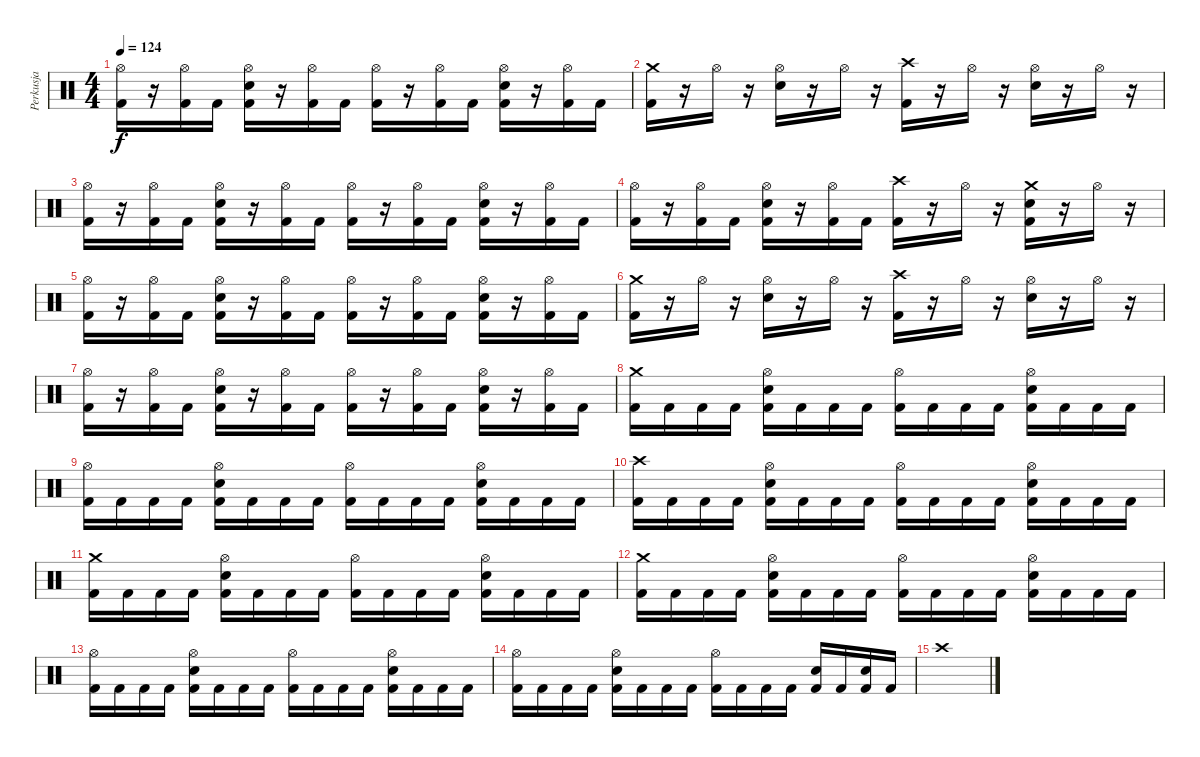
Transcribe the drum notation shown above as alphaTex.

\track ("Perkusja" "Perkusja") {instrument percussion}
\staff {score}
\articulation defaults
\ts (4 4)
\tempo 124
\clef neutral
\ks c
("Hi-Hat (open)" "Kick (hit) 2").16{dy f} r.16 ("Hi-Hat (open)" "Kick (hit) 2").16 "Kick (hit) 2".16 ("Snare (hit) 2" "Hi-Hat (open)" "Kick (hit) 2").16 r.16 ("Hi-Hat (open)" "Kick (hit) 2").16 "Kick (hit) 2".16 ("Hi-Hat (open)" "Kick (hit) 2").16 r.16 ("Hi-Hat (open)" "Kick (hit) 2").16 "Kick (hit) 2".16 ("Snare (hit) 2" "Hi-Hat (open)" "Kick (hit) 2").16 r.16 ("Hi-Hat (open)" "Kick (hit) 2").16 "Kick (hit) 2".16 |
("Crash medium (hit)" "Kick (hit) 2").16 r.16 "Hi-Hat (open)".16 r.16 ("Snare (hit) 2" "Hi-Hat (open)").16 r.16 "Hi-Hat (open)".16 r.16 ("Crash high (hit)" "Kick (hit) 2").16 r.16 "Hi-Hat (open)".16 r.16 ("Snare (hit) 2" "Hi-Hat (open)").16 r.16 "Hi-Hat (open)".16 r.16 |
("Hi-Hat (open)" "Kick (hit) 2").16 r.16 ("Hi-Hat (open)" "Kick (hit) 2").16 "Kick (hit) 2".16 ("Snare (hit) 2" "Hi-Hat (open)" "Kick (hit) 2").16 r.16 ("Hi-Hat (open)" "Kick (hit) 2").16 "Kick (hit) 2".16 ("Hi-Hat (open)" "Kick (hit) 2").16 r.16 ("Hi-Hat (open)" "Kick (hit) 2").16 "Kick (hit) 2".16 ("Snare (hit) 2" "Hi-Hat (open)" "Kick (hit) 2").16 r.16 ("Hi-Hat (open)" "Kick (hit) 2").16 "Kick (hit) 2".16 |
("Hi-Hat (open)" "Kick (hit) 2").16 r.16 ("Hi-Hat (open)" "Kick (hit) 2").16 "Kick (hit) 2".16 ("Snare (hit) 2" "Hi-Hat (open)" "Kick (hit) 2").16 r.16 ("Hi-Hat (open)" "Kick (hit) 2").16 "Kick (hit) 2".16 ("Crash high (hit)" "Kick (hit) 2").16 r.16 "Hi-Hat (open)".16 r.16 ("Snare (hit) 2" "Crash medium (hit)" "Kick (hit) 2").16 r.16 "Hi-Hat (open)".16 r.16 |
("Hi-Hat (open)" "Kick (hit) 2").16 r.16 ("Hi-Hat (open)" "Kick (hit) 2").16 "Kick (hit) 2".16 ("Snare (hit) 2" "Hi-Hat (open)" "Kick (hit) 2").16 r.16 ("Hi-Hat (open)" "Kick (hit) 2").16 "Kick (hit) 2".16 ("Hi-Hat (open)" "Kick (hit) 2").16 r.16 ("Hi-Hat (open)" "Kick (hit) 2").16 "Kick (hit) 2".16 ("Snare (hit) 2" "Hi-Hat (open)" "Kick (hit) 2").16 r.16 ("Hi-Hat (open)" "Kick (hit) 2").16 "Kick (hit) 2".16 |
("Crash medium (hit)" "Kick (hit) 2").16 r.16 "Hi-Hat (open)".16 r.16 ("Snare (hit) 2" "Hi-Hat (open)").16 r.16 "Hi-Hat (open)".16 r.16 ("Crash high (hit)" "Kick (hit) 2").16 r.16 "Hi-Hat (open)".16 r.16 ("Snare (hit) 2" "Hi-Hat (open)").16 r.16 "Hi-Hat (open)".16 r.16 |
("Hi-Hat (open)" "Kick (hit) 2").16 r.16 ("Hi-Hat (open)" "Kick (hit) 2").16 "Kick (hit) 2".16 ("Snare (hit) 2" "Hi-Hat (open)" "Kick (hit) 2").16 r.16 ("Hi-Hat (open)" "Kick (hit) 2").16 "Kick (hit) 2".16 ("Hi-Hat (open)" "Kick (hit) 2").16 r.16 ("Hi-Hat (open)" "Kick (hit) 2").16 "Kick (hit) 2".16 ("Snare (hit) 2" "Hi-Hat (open)" "Kick (hit) 2").16 r.16 ("Hi-Hat (open)" "Kick (hit) 2").16 "Kick (hit) 2".16 |
("Crash medium (hit)" "Kick (hit) 2").16 "Kick (hit) 2".16 "Kick (hit) 2".16 "Kick (hit) 2".16 ("Snare (hit) 2" "Hi-Hat (open)" "Kick (hit) 2").16 "Kick (hit) 2".16 "Kick (hit) 2".16 "Kick (hit) 2".16 ("Hi-Hat (open)" "Kick (hit) 2").16 "Kick (hit) 2".16 "Kick (hit) 2".16 "Kick (hit) 2".16 ("Snare (hit) 2" "Hi-Hat (open)" "Kick (hit) 2").16 "Kick (hit) 2".16 "Kick (hit) 2".16 "Kick (hit) 2".16 |
("Hi-Hat (open)" "Kick (hit) 2").16 "Kick (hit) 2".16 "Kick (hit) 2".16 "Kick (hit) 2".16 ("Snare (hit) 2" "Hi-Hat (open)" "Kick (hit) 2").16 "Kick (hit) 2".16 "Kick (hit) 2".16 "Kick (hit) 2".16 ("Hi-Hat (open)" "Kick (hit) 2").16 "Kick (hit) 2".16 "Kick (hit) 2".16 "Kick (hit) 2".16 ("Snare (hit) 2" "Hi-Hat (open)" "Kick (hit) 2").16 "Kick (hit) 2".16 "Kick (hit) 2".16 "Kick (hit) 2".16 |
("Crash high (hit)" "Kick (hit) 2").16 "Kick (hit) 2".16 "Kick (hit) 2".16 "Kick (hit) 2".16 ("Snare (hit) 2" "Hi-Hat (open)" "Kick (hit) 2").16 "Kick (hit) 2".16 "Kick (hit) 2".16 "Kick (hit) 2".16 ("Hi-Hat (open)" "Kick (hit) 2").16 "Kick (hit) 2".16 "Kick (hit) 2".16 "Kick (hit) 2".16 ("Snare (hit) 2" "Hi-Hat (open)" "Kick (hit) 2").16 "Kick (hit) 2".16 "Kick (hit) 2".16 "Kick (hit) 2".16 |
("Crash medium (hit)" "Kick (hit) 2").16 "Kick (hit) 2".16 "Kick (hit) 2".16 "Kick (hit) 2".16 ("Snare (hit) 2" "Hi-Hat (open)" "Kick (hit) 2").16 "Kick (hit) 2".16 "Kick (hit) 2".16 "Kick (hit) 2".16 ("Hi-Hat (open)" "Kick (hit) 2").16 "Kick (hit) 2".16 "Kick (hit) 2".16 "Kick (hit) 2".16 ("Snare (hit) 2" "Hi-Hat (open)" "Kick (hit) 2").16 "Kick (hit) 2".16 "Kick (hit) 2".16 "Kick (hit) 2".16 |
("Crash medium (hit)" "Kick (hit) 2").16 "Kick (hit) 2".16 "Kick (hit) 2".16 "Kick (hit) 2".16 ("Snare (hit) 2" "Hi-Hat (open)" "Kick (hit) 2").16 "Kick (hit) 2".16 "Kick (hit) 2".16 "Kick (hit) 2".16 ("Hi-Hat (open)" "Kick (hit) 2").16 "Kick (hit) 2".16 "Kick (hit) 2".16 "Kick (hit) 2".16 ("Snare (hit) 2" "Hi-Hat (open)" "Kick (hit) 2").16 "Kick (hit) 2".16 "Kick (hit) 2".16 "Kick (hit) 2".16 |
("Hi-Hat (open)" "Kick (hit) 2").16 "Kick (hit) 2".16 "Kick (hit) 2".16 "Kick (hit) 2".16 ("Snare (hit) 2" "Hi-Hat (open)" "Kick (hit) 2").16 "Kick (hit) 2".16 "Kick (hit) 2".16 "Kick (hit) 2".16 ("Hi-Hat (open)" "Kick (hit) 2").16 "Kick (hit) 2".16 "Kick (hit) 2".16 "Kick (hit) 2".16 ("Snare (hit) 2" "Hi-Hat (open)" "Kick (hit) 2").16 "Kick (hit) 2".16 "Kick (hit) 2".16 "Kick (hit) 2".16 |
("Hi-Hat (open)" "Kick (hit) 2").16 "Kick (hit) 2".16 "Kick (hit) 2".16 "Kick (hit) 2".16 ("Snare (hit) 2" "Hi-Hat (open)" "Kick (hit) 2").16 "Kick (hit) 2".16 "Kick (hit) 2".16 "Kick (hit) 2".16 ("Hi-Hat (open)" "Kick (hit) 2").16 "Kick (hit) 2".16 "Kick (hit) 2".16 "Kick (hit) 2".16 ("Snare (hit) 2" "Kick (hit) 2").16 "Kick (hit) 2".16 ("Snare (hit) 2" "Kick (hit) 2").16 "Kick (hit) 2".16 |
"Crash high (hit)".1
